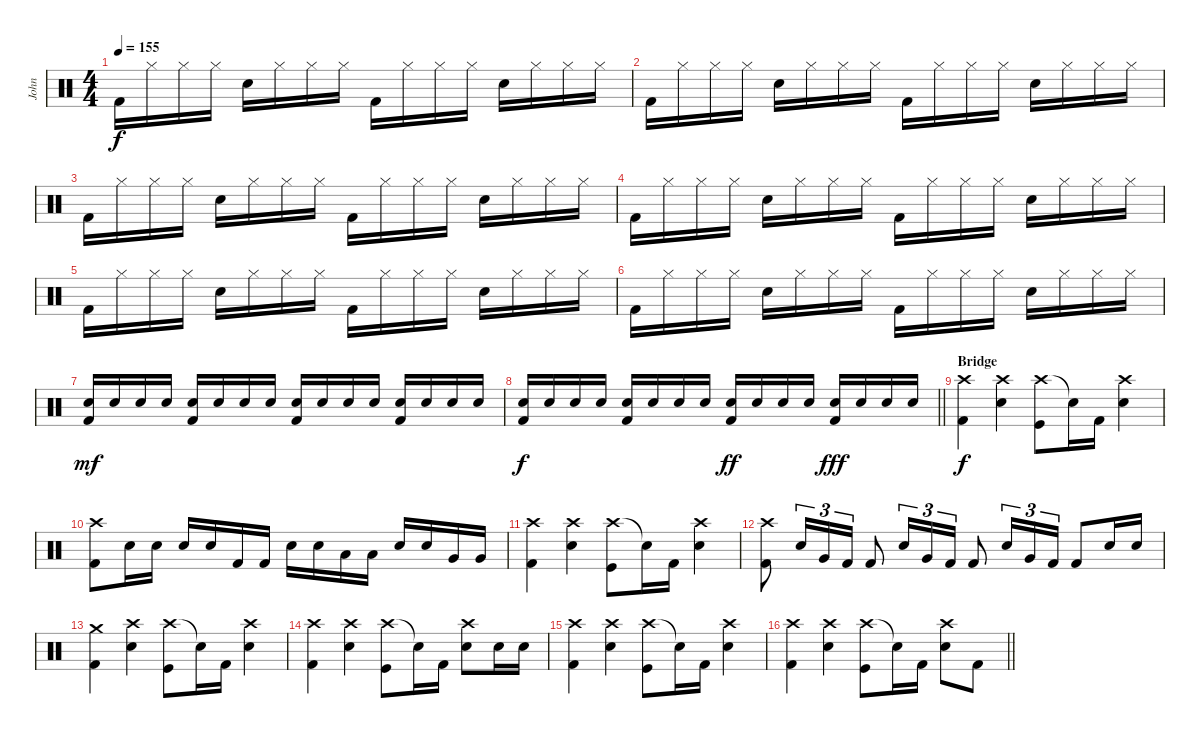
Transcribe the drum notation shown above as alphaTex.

\track ("John" "John") {instrument percussion}
\staff {score}
\articulation defaults
\ts (4 4)
\tempo 155
\clef neutral
\ks c "Kick (hit) 2".16{dy f} "Hi-Hat (closed)".16 "Hi-Hat (closed)".16 "Hi-Hat (closed)".16 "Snare (hit) 2".16 "Hi-Hat (closed)".16 "Hi-Hat (closed)".16 "Hi-Hat (closed)".16 "Kick (hit) 2".16 "Hi-Hat (closed)".16 "Hi-Hat (closed)".16 "Hi-Hat (closed)".16 "Snare (hit) 2".16 "Hi-Hat (closed)".16 "Hi-Hat (closed)".16 "Hi-Hat (closed)".16
|
"Kick (hit) 2".16 "Hi-Hat (closed)".16 "Hi-Hat (closed)".16 "Hi-Hat (closed)".16 "Snare (hit) 2".16 "Hi-Hat (closed)".16 "Hi-Hat (closed)".16 "Hi-Hat (closed)".16 "Kick (hit) 2".16 "Hi-Hat (closed)".16 "Hi-Hat (closed)".16 "Hi-Hat (closed)".16 "Snare (hit) 2".16 "Hi-Hat (closed)".16 "Hi-Hat (closed)".16 "Hi-Hat (closed)".16 |
"Kick (hit) 2".16 "Hi-Hat (closed)".16 "Hi-Hat (closed)".16 "Hi-Hat (closed)".16 "Snare (hit) 2".16 "Hi-Hat (closed)".16 "Hi-Hat (closed)".16 "Hi-Hat (closed)".16 "Kick (hit) 2".16 "Hi-Hat (closed)".16 "Hi-Hat (closed)".16 "Hi-Hat (closed)".16 "Snare (hit) 2".16 "Hi-Hat (closed)".16 "Hi-Hat (closed)".16 "Hi-Hat (closed)".16 |
"Kick (hit) 2".16 "Hi-Hat (closed)".16 "Hi-Hat (closed)".16 "Hi-Hat (closed)".16 "Snare (hit) 2".16 "Hi-Hat (closed)".16 "Hi-Hat (closed)".16 "Hi-Hat (closed)".16 "Kick (hit) 2".16 "Hi-Hat (closed)".16 "Hi-Hat (closed)".16 "Hi-Hat (closed)".16 "Snare (hit) 2".16 "Hi-Hat (closed)".16 "Hi-Hat (closed)".16 "Hi-Hat (closed)".16 |
"Kick (hit) 2".16 "Hi-Hat (closed)".16 "Hi-Hat (closed)".16 "Hi-Hat (closed)".16 "Snare (hit) 2".16 "Hi-Hat (closed)".16 "Hi-Hat (closed)".16 "Hi-Hat (closed)".16 "Kick (hit) 2".16 "Hi-Hat (closed)".16 "Hi-Hat (closed)".16 "Hi-Hat (closed)".16 "Snare (hit) 2".16 "Hi-Hat (closed)".16 "Hi-Hat (closed)".16 "Hi-Hat (closed)".16 |
"Kick (hit) 2".16 "Hi-Hat (closed)".16 "Hi-Hat (closed)".16 "Hi-Hat (closed)".16 "Snare (hit) 2".16 "Hi-Hat (closed)".16 "Hi-Hat (closed)".16 "Hi-Hat (closed)".16 "Kick (hit) 2".16 "Hi-Hat (closed)".16 "Hi-Hat (closed)".16 "Hi-Hat (closed)".16 "Snare (hit) 2".16 "Hi-Hat (closed)".16 "Hi-Hat (closed)".16 "Hi-Hat (closed)".16 |
("Snare (hit) 2" "Kick (hit) 2").16{dy mf} "Snare (hit) 2".16 "Snare (hit) 2".16 "Snare (hit) 2".16 ("Snare (hit) 2" "Kick (hit) 2").16 "Snare (hit) 2".16 "Snare (hit) 2".16 "Snare (hit) 2".16 ("Snare (hit) 2" "Kick (hit) 2").16 "Snare (hit) 2".16 "Snare (hit) 2".16 "Snare (hit) 2".16 ("Snare (hit) 2" "Kick (hit) 2").16 "Snare (hit) 2".16 "Snare (hit) 2".16 "Snare (hit) 2".16 |
\barLineRight lightlight
("Snare (hit) 2" "Kick (hit) 2").16{dy f} "Snare (hit) 2".16 "Snare (hit) 2".16 "Snare (hit) 2".16 ("Snare (hit) 2" "Kick (hit) 2").16 "Snare (hit) 2".16 "Snare (hit) 2".16 "Snare (hit) 2".16 ("Snare (hit) 2" "Kick (hit) 2").16{dy ff} "Snare (hit) 2".16 "Snare (hit) 2".16 "Snare (hit) 2".16 ("Snare (hit) 2" "Kick (hit) 2").16{dy fff} "Snare (hit) 2".16 "Snare (hit) 2".16 "Snare (hit) 2".16 |
\section ("" "Bridge")
("Crash high (hit)" "Kick (hit) 2").4{dy f} ("Crash high (hit)" "Snare (hit) 2").4 ("Crash high (hit)" "Kick (hit)").8 "Snare (hit)"{t}.16 "Kick (hit) 2".16 ("Crash high (hit)" "Snare (hit) 2").4 |
("Crash high (hit)" "Kick (hit) 2").8 "Snare (hit) 2".16 "Snare (hit) 2".16 "Snare (hit) 2".16 "Snare (hit) 2".16 "Kick (hit) 2".16 "Kick (hit) 2".16 "Snare (hit) 2".16 "Snare (hit) 2".16 "Low Tom (hit)".16 "Low Tom (hit)".16 "Snare (hit) 2".16 "Snare (hit) 2".16 "Very Low Tom (hit)".16 "Very Low Tom (hit)".16 |
("Crash high (hit)" "Kick (hit) 2").4 ("Crash high (hit)" "Snare (hit) 2").4 ("Crash high (hit)" "Kick (hit)").8 "Snare (hit)"{t}.16 "Kick (hit) 2".16 ("Crash high (hit)" "Snare (hit) 2").4 |
("Crash high (hit)" "Kick (hit) 2").8 "Snare (hit) 2".16{tu (3 2)} "Very Low Tom (hit)".16{tu (3 2)} "Kick (hit) 2".16{tu (3 2)} "Kick (hit) 2".8 "Snare (hit) 2".16{tu (3 2)} "Very Low Tom (hit)".16{tu (3 2)} "Kick (hit) 2".16{tu (3 2)} "Kick (hit) 2".8 "Snare (hit) 2".16{tu (3 2)} "Very Low Tom (hit)".16{tu (3 2)} "Kick (hit) 2".16{tu (3 2)} "Kick (hit) 2".8 "Snare (hit) 2".16 "Snare (hit) 2".16 |
("Crash medium (hit)" "Kick (hit) 2").4 ("Crash high (hit)" "Snare (hit) 2").4 ("Crash high (hit)" "Kick (hit)").8 "Snare (hit)"{t}.16 "Kick (hit) 2".16 ("Crash high (hit)" "Snare (hit) 2").4 |
("Crash high (hit)" "Kick (hit) 2").4 ("Crash high (hit)" "Snare (hit) 2").4 ("Crash high (hit)" "Kick (hit)").8 "Snare (hit)"{t}.16 "Kick (hit) 2".16 ("Crash high (hit)" "Snare (hit) 2").8 "Snare (hit) 2".16 "Snare (hit) 2".16 |
("Crash high (hit)" "Kick (hit) 2").4 ("Crash high (hit)" "Snare (hit) 2").4 ("Crash high (hit)" "Kick (hit)").8 "Snare (hit)"{t}.16 "Kick (hit) 2".16 ("Crash high (hit)" "Snare (hit) 2").4 |
\barLineRight lightlight
("Crash high (hit)" "Kick (hit) 2").4 ("Crash high (hit)" "Snare (hit) 2").4 ("Crash high (hit)" "Kick (hit)").8 "Snare (hit)"{t}.16 "Kick (hit) 2".16 ("Crash high (hit)" "Snare (hit) 2").8 "Kick (hit) 2".8
